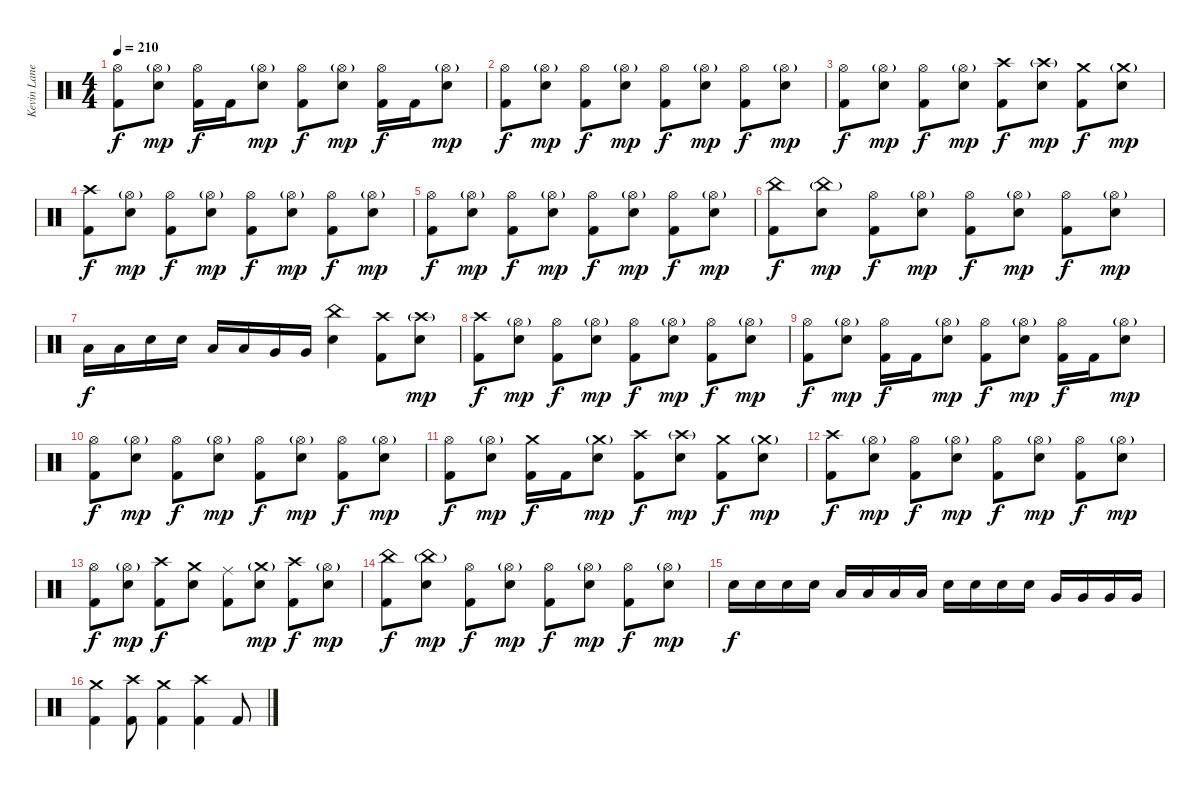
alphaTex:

\track ("Kevin Lane (Drums)" "Kevin Lane") {instrument percussion}
\staff {score}
\articulation defaults
\ts (4 4)
\tempo 210
\clef neutral
\ks c
("Hi-Hat (open)" "Kick (hit) 2").8{dy f} ("Hi-Hat (open)"{g} "Snare (hit) 2").8{dy mp} ("Hi-Hat (open)" "Kick (hit) 2").16{dy f} "Kick (hit) 2".16 ("Hi-Hat (open)"{g} "Snare (hit) 2").8{dy mp} ("Hi-Hat (open)" "Kick (hit) 2").8{dy f} ("Hi-Hat (open)"{g} "Snare (hit) 2").8{dy mp} ("Hi-Hat (open)" "Kick (hit) 2").16{dy f} "Kick (hit) 2".16 ("Hi-Hat (open)"{g} "Snare (hit) 2").8{dy mp} |
("Hi-Hat (open)" "Kick (hit) 2").8{dy f} ("Hi-Hat (open)"{g} "Snare (hit) 2").8{dy mp} ("Hi-Hat (open)" "Kick (hit) 2").8{dy f} ("Hi-Hat (open)"{g} "Snare (hit) 2").8{dy mp} ("Hi-Hat (open)" "Kick (hit) 2").8{dy f} ("Hi-Hat (open)"{g} "Snare (hit) 2").8{dy mp} ("Hi-Hat (open)" "Kick (hit) 2").8{dy f} ("Hi-Hat (open)"{g} "Snare (hit) 2").8{dy mp} |
("Hi-Hat (open)" "Kick (hit) 2").8{dy f} ("Hi-Hat (open)"{g} "Snare (hit) 2").8{dy mp} ("Hi-Hat (open)" "Kick (hit) 2").8{dy f} ("Hi-Hat (open)"{g} "Snare (hit) 2").8{dy mp} ("Crash high (hit)" "Kick (hit) 2").8{dy f} ("Crash high (hit)"{g} "Snare (hit) 2").8{dy mp} ("Crash medium (hit)" "Kick (hit) 2").8{dy f} ("Crash medium (hit)"{g} "Snare (hit) 2").8{dy mp} |
("Crash high (hit)" "Kick (hit) 2").8{dy f} ("Hi-Hat (open)"{g} "Snare (hit) 2").8{dy mp} ("Hi-Hat (open)" "Kick (hit) 2").8{dy f} ("Hi-Hat (open)"{g} "Snare (hit) 2").8{dy mp} ("Hi-Hat (open)" "Kick (hit) 2").8{dy f} ("Hi-Hat (open)"{g} "Snare (hit) 2").8{dy mp} ("Hi-Hat (open)" "Kick (hit) 2").8{dy f} ("Hi-Hat (open)"{g} "Snare (hit) 2").8{dy mp} |
("Hi-Hat (open)" "Kick (hit) 2").8{dy f} ("Hi-Hat (open)"{g} "Snare (hit) 2").8{dy mp} ("Hi-Hat (open)" "Kick (hit) 2").8{dy f} ("Hi-Hat (open)"{g} "Snare (hit) 2").8{dy mp} ("Hi-Hat (open)" "Kick (hit) 2").8{dy f} ("Hi-Hat (open)"{g} "Snare (hit) 2").8{dy mp} ("Hi-Hat (open)" "Kick (hit) 2").8{dy f} ("Hi-Hat (open)"{g} "Snare (hit) 2").8{dy mp} |
("China (hit)" "Kick (hit) 2").8{dy f} ("China (hit)"{g} "Snare (hit) 2").8{dy mp} ("Hi-Hat (open)" "Kick (hit) 2").8{dy f} ("Hi-Hat (open)"{g} "Snare (hit) 2").8{dy mp} ("Hi-Hat (open)" "Kick (hit) 2").8{dy f} ("Hi-Hat (open)"{g} "Snare (hit) 2").8{dy mp} ("Hi-Hat (open)" "Kick (hit) 2").8{dy f} ("Hi-Hat (open)"{g} "Snare (hit) 2").8{dy mp} |
"Low Tom (hit)".16{dy f} "Low Tom (hit)".16 "Snare (hit) 2".16 "Snare (hit) 2".16 "Low Tom (hit)".16 "Low Tom (hit)".16 "Very Low Tom (hit)".16 "Very Low Tom (hit)".16 ("China (hit)" "Snare (hit) 2").4 ("Crash high (hit)" "Kick (hit) 2").8 ("Crash high (hit)"{g} "Snare (hit) 2").8{dy mp} |
("Crash high (hit)" "Kick (hit) 2").8{dy f} ("Hi-Hat (open)"{g} "Snare (hit) 2").8{dy mp} ("Hi-Hat (open)" "Kick (hit) 2").8{dy f} ("Hi-Hat (open)"{g} "Snare (hit) 2").8{dy mp} ("Hi-Hat (open)" "Kick (hit) 2").8{dy f} ("Hi-Hat (open)"{g} "Snare (hit) 2").8{dy mp} ("Hi-Hat (open)" "Kick (hit) 2").8{dy f} ("Hi-Hat (open)"{g} "Snare (hit) 2").8{dy mp} |
("Hi-Hat (open)" "Kick (hit) 2").8{dy f} ("Hi-Hat (open)"{g} "Snare (hit) 2").8{dy mp} ("Hi-Hat (open)" "Kick (hit) 2").16{dy f} "Kick (hit) 2".16 ("Hi-Hat (open)"{g} "Snare (hit) 2").8{dy mp} ("Hi-Hat (open)" "Kick (hit) 2").8{dy f} ("Hi-Hat (open)"{g} "Snare (hit) 2").8{dy mp} ("Hi-Hat (open)" "Kick (hit) 2").16{dy f} "Kick (hit) 2".16 ("Hi-Hat (open)"{g} "Snare (hit) 2").8{dy mp} |
("Hi-Hat (open)" "Kick (hit) 2").8{dy f} ("Hi-Hat (open)"{g} "Snare (hit) 2").8{dy mp} ("Hi-Hat (open)" "Kick (hit) 2").8{dy f} ("Hi-Hat (open)"{g} "Snare (hit) 2").8{dy mp} ("Hi-Hat (open)" "Kick (hit) 2").8{dy f} ("Hi-Hat (open)"{g} "Snare (hit) 2").8{dy mp} ("Hi-Hat (open)" "Kick (hit) 2").8{dy f} ("Hi-Hat (open)"{g} "Snare (hit) 2").8{dy mp} |
("Hi-Hat (open)" "Kick (hit) 2").8{dy f} ("Hi-Hat (open)"{g} "Snare (hit) 2").8{dy mp} ("Crash medium (hit)" "Kick (hit) 2").16{dy f} "Kick (hit) 2".16 ("Crash medium (hit)"{g} "Snare (hit) 2").8{dy mp} ("Crash high (hit)" "Kick (hit) 2").8{dy f} ("Crash high (hit)"{g} "Snare (hit) 2").8{dy mp} ("Crash medium (hit)" "Kick (hit) 2").8{dy f} ("Crash medium (hit)"{g} "Snare (hit) 2").8{dy mp} |
("Crash high (hit)" "Kick (hit) 2").8{dy f} ("Hi-Hat (open)"{g} "Snare (hit) 2").8{dy mp} ("Hi-Hat (open)" "Kick (hit) 2").8{dy f} ("Hi-Hat (open)"{g} "Snare (hit) 2").8{dy mp} ("Hi-Hat (open)" "Kick (hit) 2").8{dy f} ("Hi-Hat (open)"{g} "Snare (hit) 2").8{dy mp} ("Hi-Hat (open)" "Kick (hit) 2").8{dy f} ("Hi-Hat (open)"{g} "Snare (hit) 2").8{dy mp} |
("Hi-Hat (open)" "Kick (hit) 2").8{dy f} ("Hi-Hat (open)"{g} "Snare (hit) 2").8{dy mp} ("Crash high (hit)" "Kick (hit) 2").8{dy f} ("Crash medium (hit)" "Snare (hit) 2").8 ("Ride (middle)" "Kick (hit) 2").8 ("Crash medium (hit)"{g} "Snare (hit) 2").8{dy mp} ("Crash high (hit)" "Kick (hit) 2").8{dy f} ("Hi-Hat (open)"{g} "Snare (hit) 2").8{dy mp} |
("China (hit)" "Kick (hit) 2").8{dy f} ("China (hit)"{g} "Snare (hit) 2").8{dy mp} ("Hi-Hat (open)" "Kick (hit) 2").8{dy f} ("Hi-Hat (open)"{g} "Snare (hit) 2").8{dy mp} ("Hi-Hat (open)" "Kick (hit) 2").8{dy f} ("Hi-Hat (open)"{g} "Snare (hit) 2").8{dy mp} ("Hi-Hat (open)" "Kick (hit) 2").8{dy f} ("Hi-Hat (open)"{g} "Snare (hit) 2").8{dy mp} |
"Snare (hit) 2".16{dy f} "Snare (hit) 2".16 "Snare (hit) 2".16 "Snare (hit) 2".16 "Low Tom (hit)".16 "Low Tom (hit)".16 "Low Tom (hit)".16 "Low Tom (hit)".16 "Snare (hit) 2".16 "Snare (hit) 2".16 "Snare (hit) 2".16 "Snare (hit) 2".16 "Very Low Tom (hit)".16 "Very Low Tom (hit)".16 "Very Low Tom (hit)".16 "Very Low Tom (hit)".16 |
("Crash medium (hit)" "Kick (hit) 2").4 ("Crash high (hit)" "Kick (hit) 2").8 ("Crash medium (hit)" "Kick (hit) 2").4 ("Crash high (hit)" "Kick (hit) 2").4 "Kick (hit) 2".8
